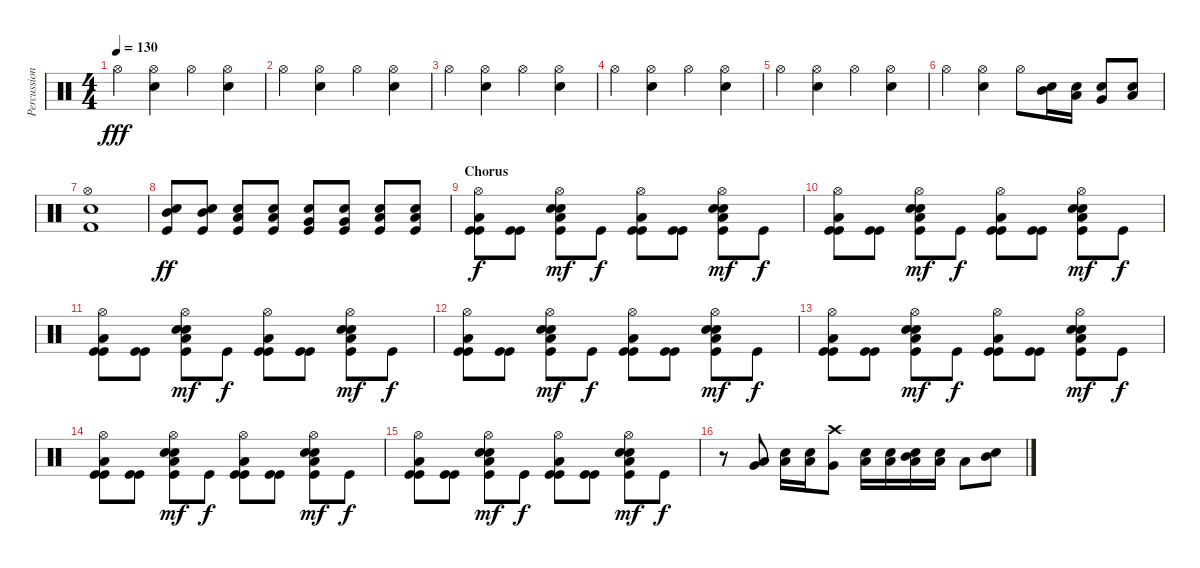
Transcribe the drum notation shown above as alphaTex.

\track ("Percussion" "Percussion") {instrument percussion}
\staff {score}
\articulation defaults
\ts (4 4)
\tempo 130
\clef neutral
\ks c "Hi-Hat (open)".4{dy fff}
("Hi-Hat (open)" "Snare (hit) 2").4 "Hi-Hat (open)".4 ("Hi-Hat (open)" "Snare (hit) 2").4 |
"Hi-Hat (open)".4 ("Hi-Hat (open)" "Snare (hit) 2").4 "Hi-Hat (open)".4 ("Hi-Hat (open)" "Snare (hit) 2").4 |
"Hi-Hat (open)".4 ("Hi-Hat (open)" "Snare (hit) 2").4 "Hi-Hat (open)".4 ("Hi-Hat (open)" "Snare (hit) 2").4 |
"Hi-Hat (open)".4 ("Hi-Hat (open)" "Snare (hit) 2").4 "Hi-Hat (open)".4 ("Hi-Hat (open)" "Snare (hit) 2").4 |
"Hi-Hat (open)".4 ("Hi-Hat (open)" "Snare (hit) 2").4 "Hi-Hat (open)".4 ("Hi-Hat (open)" "Snare (hit) 2").4 |
"Hi-Hat (open)".4 ("Hi-Hat (open)" "Snare (hit) 2").4 "Hi-Hat (open)".8 ("Snare (hit) 2" "Mid Tom (hit)").16 ("Snare (hit) 2" "Low Tom (hit)").16 ("Snare (hit) 2" "Very Low Tom (hit)").8 ("Snare (hit) 2" "Low Floor Tom (hit)").8 |
("Hi-Hat (open)" "Snare (hit) 2" "Kick (hit) 2").1 |
("Mid Tom (hit)" "Snare (hit) 2" "Kick (hit)").8{dy ff} ("Mid Tom (hit)" "Snare (hit) 2" "Kick (hit)").8 ("Low Tom (hit)" "Snare (hit) 2" "Kick (hit)").8 ("Low Tom (hit)" "Snare (hit) 2" "Kick (hit)").8 ("Very Low Tom (hit)" "Snare (hit) 2" "Kick (hit)").8 ("Very Low Tom (hit)" "Snare (hit) 2" "Kick (hit)").8 ("Low Floor Tom (hit)" "Snare (hit) 2" "Kick (hit)").8 ("Low Floor Tom (hit)" "Snare (hit) 2" "Kick (hit)").8 |
\section ("" "Chorus")
("Hi-Hat (open)" "Kick (hit)" "Kick (hit)" "Low Floor Tom (hit)").8{dy f} ("Kick (hit)" "Kick (hit)").8 ("Hi-Hat (open)" "Snare (hit) 2" "Snare (hit) 2" "Kick (hit)" "Low Floor Tom (hit)").8{dy mf} "Kick (hit)".8{dy f} ("Hi-Hat (open)" "Kick (hit)" "Kick (hit)" "Low Floor Tom (hit)").8 ("Kick (hit)" "Kick (hit)").8 ("Hi-Hat (open)" "Snare (hit) 2" "Snare (hit) 2" "Kick (hit)" "Low Floor Tom (hit)").8{dy mf} "Kick (hit)".8{dy f} |
("Hi-Hat (open)" "Kick (hit)" "Kick (hit)" "Low Floor Tom (hit)").8 ("Kick (hit)" "Kick (hit)").8 ("Hi-Hat (open)" "Snare (hit) 2" "Snare (hit) 2" "Kick (hit)" "Low Floor Tom (hit)").8{dy mf} "Kick (hit)".8{dy f} ("Hi-Hat (open)" "Kick (hit)" "Kick (hit)" "Low Floor Tom (hit)").8 ("Kick (hit)" "Kick (hit)").8 ("Hi-Hat (open)" "Snare (hit) 2" "Snare (hit) 2" "Kick (hit)" "Low Floor Tom (hit)").8{dy mf} "Kick (hit)".8{dy f} |
("Hi-Hat (open)" "Kick (hit)" "Kick (hit)" "Low Floor Tom (hit)").8 ("Kick (hit)" "Kick (hit)").8 ("Hi-Hat (open)" "Snare (hit) 2" "Snare (hit) 2" "Kick (hit)" "Low Floor Tom (hit)").8{dy mf} "Kick (hit)".8{dy f} ("Hi-Hat (open)" "Kick (hit)" "Kick (hit)" "Low Floor Tom (hit)").8 ("Kick (hit)" "Kick (hit)").8 ("Hi-Hat (open)" "Snare (hit) 2" "Snare (hit) 2" "Kick (hit)" "Low Floor Tom (hit)").8{dy mf} "Kick (hit)".8{dy f} |
("Hi-Hat (open)" "Kick (hit)" "Kick (hit)" "Low Floor Tom (hit)").8 ("Kick (hit)" "Kick (hit)").8 ("Hi-Hat (open)" "Snare (hit) 2" "Snare (hit) 2" "Kick (hit)" "Low Floor Tom (hit)").8{dy mf} "Kick (hit)".8{dy f} ("Hi-Hat (open)" "Kick (hit)" "Kick (hit)" "Low Floor Tom (hit)").8 ("Kick (hit)" "Kick (hit)").8 ("Hi-Hat (open)" "Snare (hit) 2" "Snare (hit) 2" "Kick (hit)" "Low Floor Tom (hit)").8{dy mf} "Kick (hit)".8{dy f} |
("Hi-Hat (open)" "Kick (hit)" "Kick (hit)" "Low Floor Tom (hit)").8 ("Kick (hit)" "Kick (hit)").8 ("Hi-Hat (open)" "Snare (hit) 2" "Snare (hit) 2" "Kick (hit)" "Low Floor Tom (hit)").8{dy mf} "Kick (hit)".8{dy f} ("Hi-Hat (open)" "Kick (hit)" "Kick (hit)" "Low Floor Tom (hit)").8 ("Kick (hit)" "Kick (hit)").8 ("Hi-Hat (open)" "Snare (hit) 2" "Snare (hit) 2" "Kick (hit)" "Low Floor Tom (hit)").8{dy mf} "Kick (hit)".8{dy f} |
("Hi-Hat (open)" "Kick (hit)" "Kick (hit)" "Low Floor Tom (hit)").8 ("Kick (hit)" "Kick (hit)").8 ("Hi-Hat (open)" "Snare (hit) 2" "Snare (hit) 2" "Kick (hit)" "Low Floor Tom (hit)").8{dy mf} "Kick (hit)".8{dy f} ("Hi-Hat (open)" "Kick (hit)" "Kick (hit)" "Low Floor Tom (hit)").8 ("Kick (hit)" "Kick (hit)").8 ("Hi-Hat (open)" "Snare (hit) 2" "Snare (hit) 2" "Kick (hit)" "Low Floor Tom (hit)").8{dy mf} "Kick (hit)".8{dy f} |
("Hi-Hat (open)" "Kick (hit)" "Kick (hit)" "Low Floor Tom (hit)").8 ("Kick (hit)" "Kick (hit)").8 ("Hi-Hat (open)" "Snare (hit) 2" "Snare (hit) 2" "Kick (hit)" "Low Floor Tom (hit)").8{dy mf} "Kick (hit)".8{dy f} ("Hi-Hat (open)" "Kick (hit)" "Kick (hit)" "Low Floor Tom (hit)").8 ("Kick (hit)" "Kick (hit)").8 ("Hi-Hat (open)" "Snare (hit) 2" "Snare (hit) 2" "Kick (hit)" "Low Floor Tom (hit)").8{dy mf} "Kick (hit)".8{dy f} |
r.8 ("Low Tom (hit)" "Very Low Tom (hit)").8 ("Low Floor Tom (hit)" "Snare (hit) 2").16 ("Low Floor Tom (hit)" "Snare (hit) 2").16 ("Crash high (hit)" "Very Low Tom (hit)").8 ("Low Floor Tom (hit)" "Snare (hit) 2").16 ("Low Floor Tom (hit)" "Snare (hit) 2").16 ("Mid Tom (hit)" "Low Floor Tom (hit)" "Snare (hit) 2").16 ("Low Floor Tom (hit)" "Snare (hit) 2").16 "Low Tom (hit)".8 ("Mid Tom (hit)" "Snare (hit) 2").8
